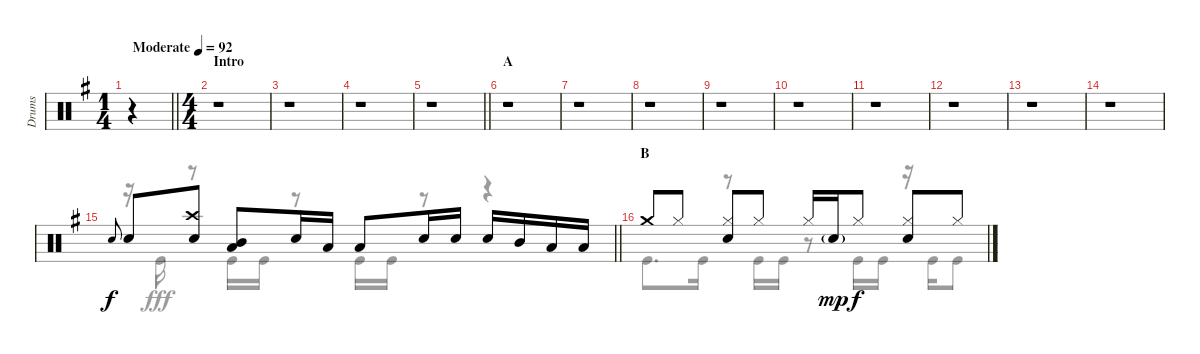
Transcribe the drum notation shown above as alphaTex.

\track ("Drums" "Drums") {instrument percussion}
\staff {score}
\articulation defaults
\voice
\ts (1 4)
\tempo (92 "Moderate")
\clef neutral
\barLineRight lightlight
\ks g
r.4{dy f} |
\ts (4 4)
\section ("" "Intro")
r.1 |
r.1 |
r.1 |
\barLineRight lightlight
r.1 |
\section ("" "A")
r.1 |
r.1 |
r.1 |
r.1 |
r.1 |
r.1 |
r.1 |
r.1 |
r.1 |
\barLineRight lightlight "Snare (hit) 2".8{gr onbeat} "Snare (hit) 2".8
("Crash high (hit)" "Snare (hit) 2").8 ("Mid Tom (hit)" "Low Tom (hit)").8 "Snare (hit) 2".16 "Low Tom (hit)".16 "Low Tom (hit)".8 "Snare (hit) 2".16 "Snare (hit) 2".16 "Snare (hit) 2".16 "Mid Tom (hit)".16 "Low Tom (hit)".16 "Low Tom (hit)".16 |
\section ("" "B")
"Crash medium (hit)".8 "Hi-Hat (closed)".8 ("Hi-Hat (closed)" "Snare (hit) 2").8 "Hi-Hat (closed)".8 "Hi-Hat (closed)".16 "Snare (hit) 2"{g}.16{dy mp} "Hi-Hat (closed)".8{dy f} ("Hi-Hat (closed)" "Snare (hit) 2").8 "Hi-Hat (closed)".8
\voice
\clef neutral
\ottava regular
\simile none
\barLineRight lightlight
\ks g
r.4{dy fff} |
r.1 |
r.1 |
r.1 |
\barLineRight lightlight
r.1 |
r.1 |
r.1 |
r.1 |
r.1 |
r.1 |
r.1 |
r.1 |
r.1 |
r.1 |
\barLineRight lightlight
r.16 "Kick (hit)".16 r.8 "Kick (hit)".16 "Kick (hit)".16 r.8 "Kick (hit)".16 "Kick (hit)".16 r.8 r.4 |
"Kick (hit)".8{d} "Kick (hit)".16 r.8 "Kick (hit)".16 "Kick (hit)".16 r.8 "Kick (hit)".16 "Kick (hit)".16 r.16 "Kick (hit)".16 "Kick (hit)".8
